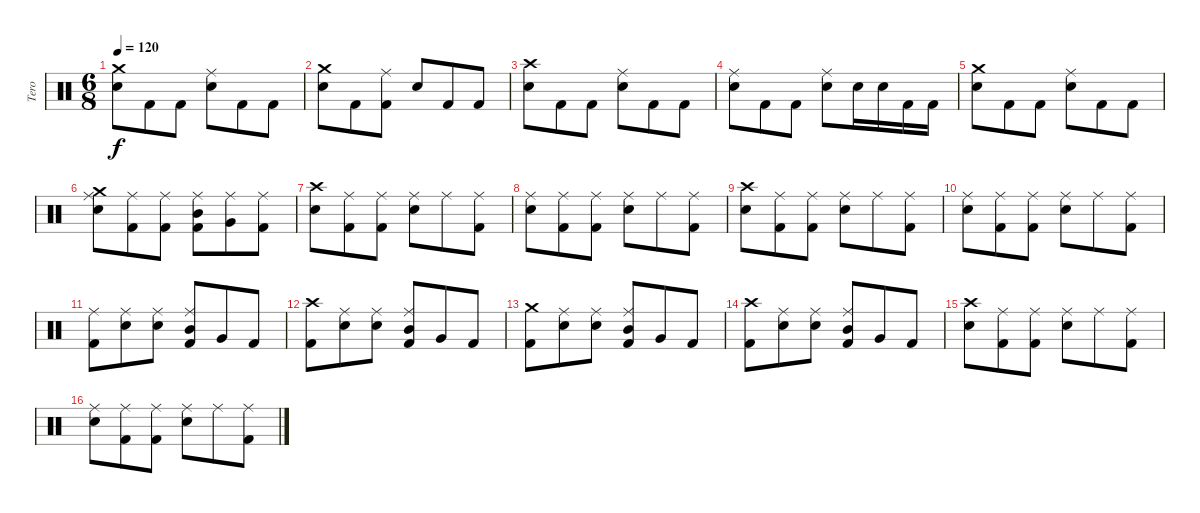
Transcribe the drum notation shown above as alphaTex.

\track ("Tero" "Tero") {instrument percussion}
\staff {score}
\articulation defaults
\ts (6 8)
\tempo 120
\clef neutral
\ks c
("Crash medium (hit)" "Snare (hit) 2").8{dy f} "Kick (hit) 2".8 "Kick (hit) 2".8 ("Ride (middle)" "Snare (hit) 2").8 "Kick (hit) 2".8 "Kick (hit) 2".8 |
("Crash medium (hit)" "Snare (hit) 2").8 "Kick (hit) 2".8 ("Ride (middle)" "Kick (hit) 2").8 "Snare (hit) 2".8 "Kick (hit) 2".8 "Kick (hit) 2".8 |
("Crash high (hit)" "Snare (hit) 2").8 "Kick (hit) 2".8 "Kick (hit) 2".8 ("Ride (middle)" "Snare (hit) 2").8 "Kick (hit) 2".8 "Kick (hit) 2".8 |
("Ride (middle)" "Snare (hit) 2").8 "Kick (hit) 2".8 "Kick (hit) 2".8 ("Ride (middle)" "Snare (hit) 2").8 "Snare (hit) 2".16 "Snare (hit) 2".16 "Kick (hit) 2".16 "Kick (hit) 2".16 |
("Crash medium (hit)" "Snare (hit) 2").8 "Kick (hit) 2".8 "Kick (hit) 2".8 ("Ride (middle)" "Snare (hit) 2").8 "Kick (hit) 2".8 "Kick (hit) 2".8 |
("Ride (middle)" "Snare (hit) 2" "Crash medium (hit)").8 ("Ride (middle)" "Kick (hit) 2").8 ("Ride (middle)" "Kick (hit) 2").8 ("Mid Tom (hit)" "Ride (middle)" "Kick (hit) 2").8 ("Very Low Tom (hit)" "Ride (middle)").8 ("Kick (hit) 2" "Ride (middle)").8 |
("Crash high (hit)" "Snare (hit) 2").8 ("Ride (middle)" "Kick (hit) 2").8 ("Ride (middle)" "Kick (hit) 2").8 ("Ride (middle)" "Snare (hit) 2").8 "Ride (middle)".8 ("Ride (middle)" "Kick (hit) 2").8 |
("Ride (middle)" "Snare (hit) 2").8 ("Ride (middle)" "Kick (hit) 2").8 ("Ride (middle)" "Kick (hit) 2").8 ("Ride (middle)" "Snare (hit) 2").8 "Ride (middle)".8 ("Ride (middle)" "Kick (hit) 2").8 |
("Crash high (hit)" "Snare (hit) 2").8 ("Ride (middle)" "Kick (hit) 2").8 ("Ride (middle)" "Kick (hit) 2").8 ("Ride (middle)" "Snare (hit) 2").8 "Ride (middle)".8 ("Ride (middle)" "Kick (hit) 2").8 |
("Ride (middle)" "Snare (hit) 2").8 ("Ride (middle)" "Kick (hit) 2").8 ("Ride (middle)" "Kick (hit) 2").8 ("Ride (middle)" "Snare (hit) 2").8 "Ride (middle)".8 ("Ride (middle)" "Kick (hit) 2").8 |
("Kick (hit) 2" "Ride (middle)").8 ("Snare (hit) 2" "Ride (middle)").8 ("Snare (hit) 2" "Ride (middle)").8 ("Ride (middle)" "Mid Tom (hit)" "Kick (hit) 2").8 "Very Low Tom (hit)".8 "Kick (hit) 2".8 |
("Crash high (hit)" "Kick (hit) 2").8 ("Snare (hit) 2" "Ride (middle)").8 ("Snare (hit) 2" "Ride (middle)").8 ("Ride (middle)" "Mid Tom (hit)" "Kick (hit) 2").8 "Very Low Tom (hit)".8 "Kick (hit) 2".8 |
("Crash medium (hit)" "Kick (hit) 2").8 ("Snare (hit) 2" "Ride (middle)").8 ("Snare (hit) 2" "Ride (middle)").8 ("Ride (middle)" "Mid Tom (hit)" "Kick (hit) 2").8 "Very Low Tom (hit)".8 "Kick (hit) 2".8 |
("Crash high (hit)" "Kick (hit) 2").8 ("Snare (hit) 2" "Ride (middle)").8 ("Snare (hit) 2" "Ride (middle)").8 ("Ride (middle)" "Mid Tom (hit)" "Kick (hit) 2").8 "Very Low Tom (hit)".8 "Kick (hit) 2".8 |
("Crash high (hit)" "Snare (hit) 2").8 ("Ride (middle)" "Kick (hit) 2").8 ("Ride (middle)" "Kick (hit) 2").8 ("Ride (middle)" "Snare (hit) 2").8 "Ride (middle)".8 ("Ride (middle)" "Kick (hit) 2").8 |
("Ride (middle)" "Snare (hit) 2").8 ("Ride (middle)" "Kick (hit) 2").8 ("Ride (middle)" "Kick (hit) 2").8 ("Ride (middle)" "Snare (hit) 2").8 "Ride (middle)".8 ("Ride (middle)" "Kick (hit) 2").8
